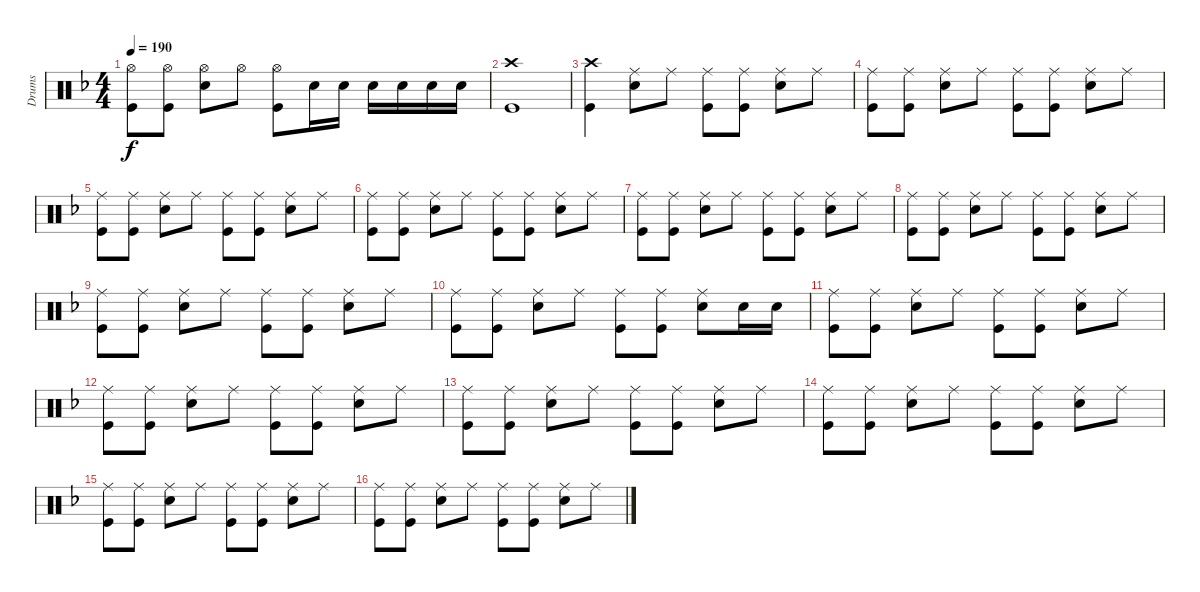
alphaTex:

\track ("Drums" "Drums") {instrument percussion}
\staff {score}
\articulation defaults
\ts (4 4)
\tempo 190
\clef neutral
\ks f
("Kick (hit)" "Hi-Hat (open)").8{dy f} ("Hi-Hat (open)" "Kick (hit)").8 ("Snare (hit) 2" "Hi-Hat (open)").8 "Hi-Hat (open)".8 ("Hi-Hat (open)" "Kick (hit)").8 "Snare (hit) 2".16 "Snare (hit) 2".16 "Snare (hit) 2".16 "Snare (hit) 2".16 "Snare (hit) 2".16 "Snare (hit) 2".16 |
("Kick (hit)" "Crash high (hit)").1 |
("Kick (hit)" "Crash high (hit)").4 ("Snare (hit) 2" "Ride (middle)").8 "Ride (middle)".8 ("Ride (middle)" "Kick (hit)").8 ("Ride (middle)" "Kick (hit)").8 ("Snare (hit) 2" "Ride (middle)").8 "Ride (middle)".8 |
("Kick (hit)" "Ride (middle)").8 ("Ride (middle)" "Kick (hit)").8 ("Snare (hit) 2" "Ride (middle)").8 "Ride (middle)".8 ("Ride (middle)" "Kick (hit)").8 ("Ride (middle)" "Kick (hit)").8 ("Ride (middle)" "Snare (hit) 2").8 "Ride (middle)".8 |
("Kick (hit)" "Ride (middle)").8 ("Ride (middle)" "Kick (hit)").8 ("Snare (hit) 2" "Ride (middle)").8 "Ride (middle)".8 ("Ride (middle)" "Kick (hit)").8 ("Ride (middle)" "Kick (hit)").8 ("Ride (middle)" "Snare (hit) 2").8 "Ride (middle)".8 |
("Kick (hit)" "Ride (middle)").8 ("Ride (middle)" "Kick (hit)").8 ("Snare (hit) 2" "Ride (middle)").8 "Ride (middle)".8 ("Ride (middle)" "Kick (hit)").8 ("Ride (middle)" "Kick (hit)").8 ("Ride (middle)" "Snare (hit) 2").8 "Ride (middle)".8 |
("Kick (hit)" "Ride (middle)").8 ("Ride (middle)" "Kick (hit)").8 ("Snare (hit) 2" "Ride (middle)").8 "Ride (middle)".8 ("Ride (middle)" "Kick (hit)").8 ("Ride (middle)" "Kick (hit)").8 ("Ride (middle)" "Snare (hit) 2").8 "Ride (middle)".8 |
("Kick (hit)" "Ride (middle)").8 ("Ride (middle)" "Kick (hit)").8 ("Snare (hit) 2" "Ride (middle)").8 "Ride (middle)".8 ("Ride (middle)" "Kick (hit)").8 ("Ride (middle)" "Kick (hit)").8 ("Ride (middle)" "Snare (hit) 2").8 "Ride (middle)".8 |
("Kick (hit)" "Ride (middle)").8 ("Ride (middle)" "Kick (hit)").8 ("Snare (hit) 2" "Ride (middle)").8 "Ride (middle)".8 ("Ride (middle)" "Kick (hit)").8 ("Ride (middle)" "Kick (hit)").8 ("Ride (middle)" "Snare (hit) 2").8 "Ride (middle)".8 |
("Kick (hit)" "Ride (middle)").8 ("Ride (middle)" "Kick (hit)").8 ("Snare (hit) 2" "Ride (middle)").8 "Ride (middle)".8 ("Ride (middle)" "Kick (hit)").8 ("Ride (middle)" "Kick (hit)").8 ("Ride (middle)" "Snare (hit) 2").8 "Snare (hit) 2".16 "Snare (hit) 2".16 |
("Kick (hit)" "Ride (middle)").8 ("Ride (middle)" "Kick (hit)").8 ("Snare (hit) 2" "Ride (middle)").8 "Ride (middle)".8 ("Ride (middle)" "Kick (hit)").8 ("Ride (middle)" "Kick (hit)").8 ("Ride (middle)" "Snare (hit) 2").8 "Ride (middle)".8 |
("Kick (hit)" "Ride (middle)").8 ("Ride (middle)" "Kick (hit)").8 ("Snare (hit) 2" "Ride (middle)").8 "Ride (middle)".8 ("Ride (middle)" "Kick (hit)").8 ("Ride (middle)" "Kick (hit)").8 ("Ride (middle)" "Snare (hit) 2").8 "Ride (middle)".8 |
("Kick (hit)" "Ride (middle)").8 ("Ride (middle)" "Kick (hit)").8 ("Snare (hit) 2" "Ride (middle)").8 "Ride (middle)".8 ("Ride (middle)" "Kick (hit)").8 ("Ride (middle)" "Kick (hit)").8 ("Ride (middle)" "Snare (hit) 2").8 "Ride (middle)".8 |
("Kick (hit)" "Ride (middle)").8 ("Ride (middle)" "Kick (hit)").8 ("Snare (hit) 2" "Ride (middle)").8 "Ride (middle)".8 ("Ride (middle)" "Kick (hit)").8 ("Ride (middle)" "Kick (hit)").8 ("Ride (middle)" "Snare (hit) 2").8 "Ride (middle)".8 |
("Kick (hit)" "Ride (middle)").8 ("Ride (middle)" "Kick (hit)").8 ("Snare (hit) 2" "Ride (middle)").8 "Ride (middle)".8 ("Ride (middle)" "Kick (hit)").8 ("Ride (middle)" "Kick (hit)").8 ("Ride (middle)" "Snare (hit) 2").8 "Ride (middle)".8 |
("Kick (hit)" "Ride (middle)").8 ("Ride (middle)" "Kick (hit)").8 ("Snare (hit) 2" "Ride (middle)").8 "Ride (middle)".8 ("Ride (middle)" "Kick (hit)").8 ("Ride (middle)" "Kick (hit)").8 ("Ride (middle)" "Snare (hit) 2").8 "Ride (middle)".8
